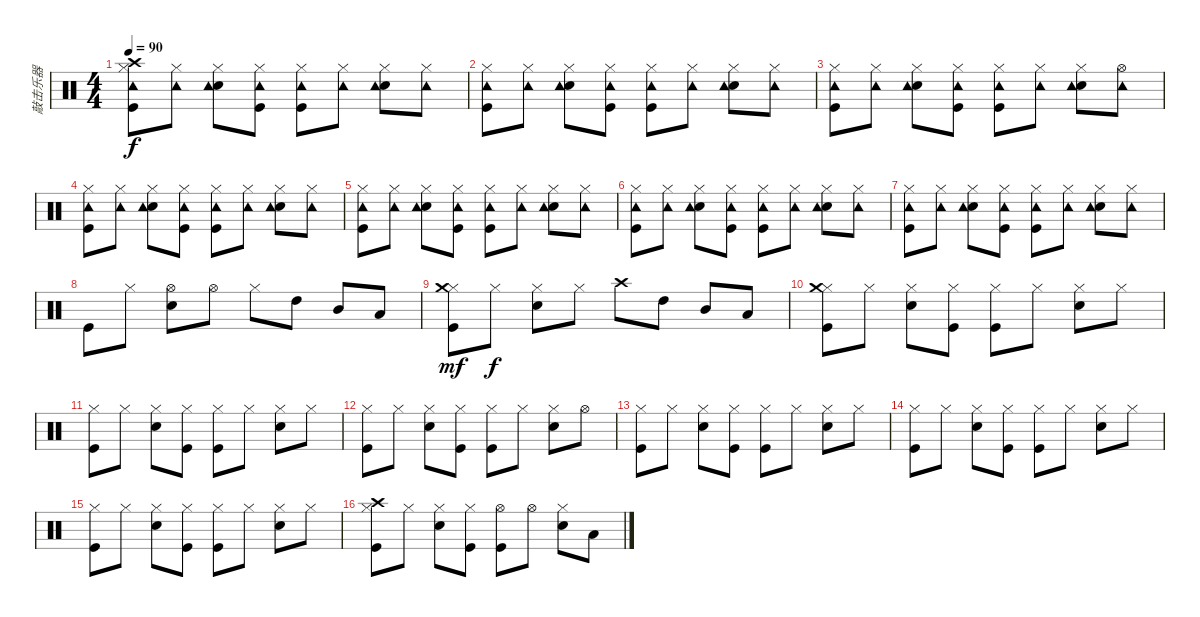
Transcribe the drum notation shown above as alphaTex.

\track ("敲击乐器" "敲击乐器") {instrument percussion}
\staff {score}
\articulation defaults
\ts (4 4)
\tempo 90
\clef neutral
\ks c
("Hi-Hat (closed)" "Crash high (hit)" "Kick (hit)" "Tambourine (hit)").8{dy f} ("Hi-Hat (closed)" "Tambourine (hit)").8 ("Hi-Hat (closed)" "Snare (hit) 2" "Tambourine (hit)").8 ("Hi-Hat (closed)" "Kick (hit)" "Tambourine (hit)").8 ("Hi-Hat (closed)" "Kick (hit)" "Tambourine (hit)").8 ("Hi-Hat (closed)" "Tambourine (hit)").8 ("Hi-Hat (closed)" "Snare (hit) 2" "Tambourine (hit)").8 ("Hi-Hat (closed)" "Tambourine (hit)").8 |
("Hi-Hat (closed)" "Kick (hit)" "Tambourine (hit)").8 ("Hi-Hat (closed)" "Tambourine (hit)").8 ("Hi-Hat (closed)" "Snare (hit) 2" "Tambourine (hit)").8 ("Hi-Hat (closed)" "Kick (hit)" "Tambourine (hit)").8 ("Hi-Hat (closed)" "Kick (hit)" "Tambourine (hit)").8 ("Hi-Hat (closed)" "Tambourine (hit)").8 ("Hi-Hat (closed)" "Snare (hit) 2" "Tambourine (hit)").8 ("Hi-Hat (closed)" "Tambourine (hit)").8 |
("Hi-Hat (closed)" "Kick (hit)" "Tambourine (hit)").8 ("Hi-Hat (closed)" "Tambourine (hit)").8 ("Hi-Hat (closed)" "Snare (hit) 2" "Tambourine (hit)").8 ("Hi-Hat (closed)" "Kick (hit)" "Tambourine (hit)").8 ("Hi-Hat (closed)" "Kick (hit)" "Tambourine (hit)").8 ("Hi-Hat (closed)" "Tambourine (hit)").8 ("Hi-Hat (closed)" "Snare (hit) 2" "Tambourine (hit)").8 ("Hi-Hat (open)" "Tambourine (hit)").8 |
("Hi-Hat (closed)" "Kick (hit)" "Tambourine (hit)").8 ("Hi-Hat (closed)" "Tambourine (hit)").8 ("Hi-Hat (closed)" "Snare (hit) 2" "Tambourine (hit)").8 ("Hi-Hat (closed)" "Kick (hit)" "Tambourine (hit)").8 ("Hi-Hat (closed)" "Kick (hit)" "Tambourine (hit)").8 ("Hi-Hat (closed)" "Tambourine (hit)").8 ("Hi-Hat (closed)" "Snare (hit) 2" "Tambourine (hit)").8 ("Hi-Hat (closed)" "Tambourine (hit)").8 |
("Hi-Hat (closed)" "Kick (hit)" "Tambourine (hit)").8 ("Hi-Hat (closed)" "Tambourine (hit)").8 ("Hi-Hat (closed)" "Snare (hit) 2" "Tambourine (hit)").8 ("Hi-Hat (closed)" "Kick (hit)" "Tambourine (hit)").8 ("Hi-Hat (closed)" "Kick (hit)" "Tambourine (hit)").8 ("Hi-Hat (closed)" "Tambourine (hit)").8 ("Hi-Hat (closed)" "Snare (hit) 2" "Tambourine (hit)").8 ("Hi-Hat (closed)" "Tambourine (hit)").8 |
("Hi-Hat (closed)" "Kick (hit)" "Tambourine (hit)").8 ("Hi-Hat (closed)" "Tambourine (hit)").8 ("Hi-Hat (closed)" "Snare (hit) 2" "Tambourine (hit)").8 ("Hi-Hat (closed)" "Kick (hit)" "Tambourine (hit)").8 ("Hi-Hat (closed)" "Kick (hit)" "Tambourine (hit)").8 ("Hi-Hat (closed)" "Tambourine (hit)").8 ("Hi-Hat (closed)" "Snare (hit) 2" "Tambourine (hit)").8 ("Hi-Hat (closed)" "Tambourine (hit)").8 |
("Hi-Hat (closed)" "Kick (hit)" "Tambourine (hit)").8 ("Hi-Hat (closed)" "Tambourine (hit)").8 ("Hi-Hat (closed)" "Snare (hit) 2" "Tambourine (hit)").8 ("Hi-Hat (closed)" "Kick (hit)" "Tambourine (hit)").8 ("Hi-Hat (closed)" "Kick (hit)" "Tambourine (hit)").8 ("Hi-Hat (closed)" "Tambourine (hit)").8 ("Hi-Hat (closed)" "Snare (hit) 2" "Tambourine (hit)").8 ("Hi-Hat (closed)" "Tambourine (hit)").8 |
"Kick (hit)".8 "Hi-Hat (closed)".8 ("Hi-Hat (open)" "Snare (hit) 2").8 "Hi-Hat (open)".8 "Hi-Hat (closed)".8 "High Tom (hit)".8 "Mid Tom (hit)".8 "Low Tom (hit)".8 |
("Hi-Hat (closed)" "Kick (hit)" "Crash medium (hit)").8{dy mf} "Hi-Hat (closed)".8{dy f} ("Hi-Hat (closed)" "Snare (hit) 2").8 "Hi-Hat (closed)".8 "Crash high (hit)".8 "High Tom (hit)".8 "Mid Tom (hit)".8 "Low Tom (hit)".8 |
("Hi-Hat (closed)" "Kick (hit)" "Crash medium (hit)").8 "Hi-Hat (closed)".8 ("Hi-Hat (closed)" "Snare (hit) 2").8 ("Hi-Hat (closed)" "Kick (hit)").8 ("Hi-Hat (closed)" "Kick (hit)").8 "Hi-Hat (closed)".8 ("Hi-Hat (closed)" "Snare (hit) 2").8 "Hi-Hat (closed)".8 |
("Hi-Hat (closed)" "Kick (hit)").8 "Hi-Hat (closed)".8 ("Hi-Hat (closed)" "Snare (hit) 2").8 ("Hi-Hat (closed)" "Kick (hit)").8 ("Hi-Hat (closed)" "Kick (hit)").8 "Hi-Hat (closed)".8 ("Hi-Hat (closed)" "Snare (hit) 2").8 "Hi-Hat (closed)".8 |
("Hi-Hat (closed)" "Kick (hit)").8 "Hi-Hat (closed)".8 ("Hi-Hat (closed)" "Snare (hit) 2").8 ("Hi-Hat (closed)" "Kick (hit)").8 ("Hi-Hat (closed)" "Kick (hit)").8 "Hi-Hat (closed)".8 ("Hi-Hat (closed)" "Snare (hit) 2").8 "Hi-Hat (open)".8 |
("Hi-Hat (closed)" "Kick (hit)").8 "Hi-Hat (closed)".8 ("Hi-Hat (closed)" "Snare (hit) 2").8 ("Hi-Hat (closed)" "Kick (hit)").8 ("Hi-Hat (closed)" "Kick (hit)").8 "Hi-Hat (closed)".8 ("Hi-Hat (closed)" "Snare (hit) 2").8 "Hi-Hat (closed)".8 |
("Hi-Hat (closed)" "Kick (hit)").8 "Hi-Hat (closed)".8 ("Hi-Hat (closed)" "Snare (hit) 2").8 ("Hi-Hat (closed)" "Kick (hit)").8 ("Hi-Hat (closed)" "Kick (hit)").8 "Hi-Hat (closed)".8 ("Hi-Hat (closed)" "Snare (hit) 2").8 "Hi-Hat (closed)".8 |
("Hi-Hat (closed)" "Kick (hit)").8 "Hi-Hat (closed)".8 ("Hi-Hat (closed)" "Snare (hit) 2").8 ("Hi-Hat (closed)" "Kick (hit)").8 ("Hi-Hat (closed)" "Kick (hit)").8 "Hi-Hat (closed)".8 ("Hi-Hat (closed)" "Snare (hit) 2").8 "Hi-Hat (closed)".8 |
("Hi-Hat (closed)" "Kick (hit)" "Crash high (hit)").8 "Hi-Hat (closed)".8 ("Hi-Hat (closed)" "Snare (hit) 2").8 ("Hi-Hat (closed)" "Kick (hit)").8 ("Hi-Hat (open)" "Kick (hit)").8 "Hi-Hat (open)".8 ("Hi-Hat (closed)" "Snare (hit) 2").8 "Low Tom (hit)".8
